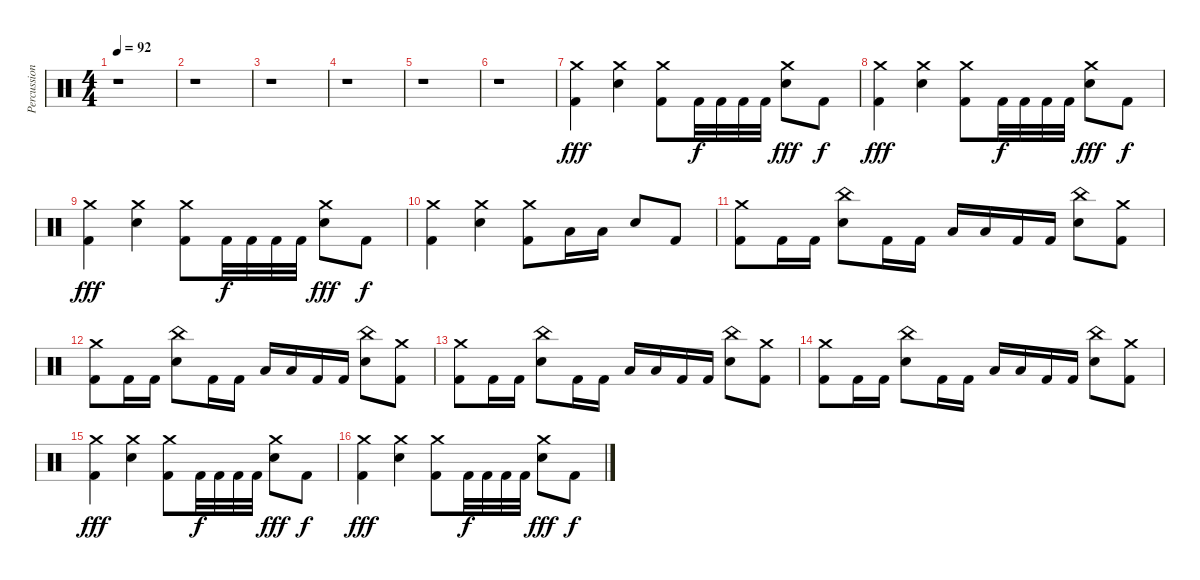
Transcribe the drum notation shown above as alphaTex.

\track ("Percussion" "Percussion") {instrument percussion}
\staff {score}
\articulation defaults
\ts (4 4)
\tempo 92
\clef neutral
\ks c
r.1{dy f} |
r.1 |
r.1 |
r.1 |
r.1 |
r.1 |
("Crash medium (hit)" "Kick (hit) 2").4{dy fff} ("Crash medium (hit)" "Electric Snare (hit)").4 ("Crash medium (hit)" "Kick (hit) 2").8 "Kick (hit) 2".32{dy f} "Kick (hit) 2".32 "Kick (hit) 2".32 "Kick (hit) 2".32 ("Crash medium (hit)" "Electric Snare (hit)").8{dy fff} "Kick (hit) 2".8{dy f} |
("Crash medium (hit)" "Kick (hit) 2").4{dy fff} ("Crash medium (hit)" "Electric Snare (hit)").4 ("Crash medium (hit)" "Kick (hit) 2").8 "Kick (hit) 2".32{dy f} "Kick (hit) 2".32 "Kick (hit) 2".32 "Kick (hit) 2".32 ("Crash medium (hit)" "Electric Snare (hit)").8{dy fff} "Kick (hit) 2".8{dy f} |
("Crash medium (hit)" "Kick (hit) 2").4{dy fff} ("Crash medium (hit)" "Electric Snare (hit)").4 ("Crash medium (hit)" "Kick (hit) 2").8 "Kick (hit) 2".32{dy f} "Kick (hit) 2".32 "Kick (hit) 2".32 "Kick (hit) 2".32 ("Crash medium (hit)" "Electric Snare (hit)").8{dy fff} "Kick (hit) 2".8{dy f} |
("Crash medium (hit)" "Kick (hit) 2").4 ("Crash medium (hit)" "Electric Snare (hit)").4 ("Crash medium (hit)" "Kick (hit) 2").8 "Low Floor Tom (hit)".16 "Low Floor Tom (hit)".16 "Electric Snare (hit)".8 "Kick (hit) 2".8 |
("Crash medium (hit)" "Kick (hit) 2").8 "Kick (hit) 2".16 "Kick (hit) 2".16 ("China (hit)" "Electric Snare (hit)").8 "Kick (hit) 2".16 "Kick (hit) 2".16 "Low Floor Tom (hit)".16 "Low Floor Tom (hit)".16 "Kick (hit) 2".16 "Kick (hit) 2".16 ("China (hit)" "Electric Snare (hit)").8 ("Crash medium (hit)" "Kick (hit) 2").8 |
("Crash medium (hit)" "Kick (hit) 2").8 "Kick (hit) 2".16 "Kick (hit) 2".16 ("China (hit)" "Electric Snare (hit)").8 "Kick (hit) 2".16 "Kick (hit) 2".16 "Low Floor Tom (hit)".16 "Low Floor Tom (hit)".16 "Kick (hit) 2".16 "Kick (hit) 2".16 ("China (hit)" "Electric Snare (hit)").8 ("Crash medium (hit)" "Kick (hit) 2").8 |
("Crash medium (hit)" "Kick (hit) 2").8 "Kick (hit) 2".16 "Kick (hit) 2".16 ("China (hit)" "Electric Snare (hit)").8 "Kick (hit) 2".16 "Kick (hit) 2".16 "Low Floor Tom (hit)".16 "Low Floor Tom (hit)".16 "Kick (hit) 2".16 "Kick (hit) 2".16 ("China (hit)" "Electric Snare (hit)").8 ("Crash medium (hit)" "Kick (hit) 2").8 |
("Crash medium (hit)" "Kick (hit) 2").8 "Kick (hit) 2".16 "Kick (hit) 2".16 ("China (hit)" "Electric Snare (hit)").8 "Kick (hit) 2".16 "Kick (hit) 2".16 "Low Floor Tom (hit)".16 "Low Floor Tom (hit)".16 "Kick (hit) 2".16 "Kick (hit) 2".16 ("China (hit)" "Electric Snare (hit)").8 ("Crash medium (hit)" "Kick (hit) 2").8 |
("Crash medium (hit)" "Kick (hit) 2").4{dy fff} ("Crash medium (hit)" "Electric Snare (hit)").4 ("Crash medium (hit)" "Kick (hit) 2").8 "Kick (hit) 2".32{dy f} "Kick (hit) 2".32 "Kick (hit) 2".32 "Kick (hit) 2".32 ("Crash medium (hit)" "Electric Snare (hit)").8{dy fff} "Kick (hit) 2".8{dy f} |
("Crash medium (hit)" "Kick (hit) 2").4{dy fff} ("Crash medium (hit)" "Electric Snare (hit)").4 ("Crash medium (hit)" "Kick (hit) 2").8 "Kick (hit) 2".32{dy f} "Kick (hit) 2".32 "Kick (hit) 2".32 "Kick (hit) 2".32 ("Crash medium (hit)" "Electric Snare (hit)").8{dy fff} "Kick (hit) 2".8{dy f}
